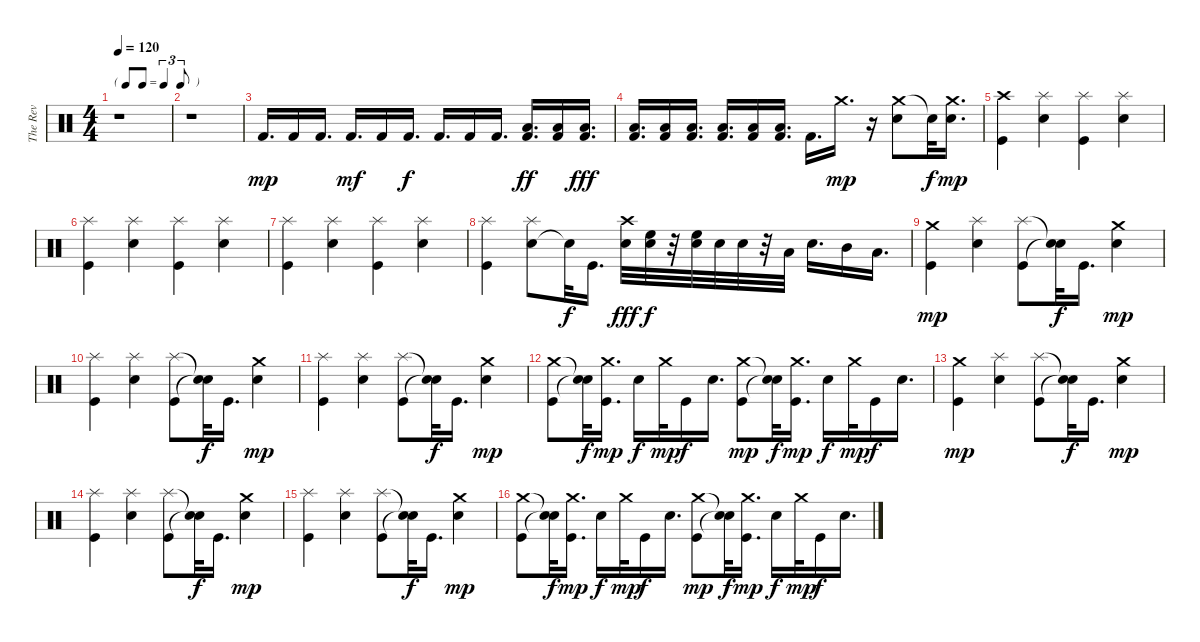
\track ("The Rev" "The Rev") {instrument percussion}
\staff {score}
\articulation defaults
\ts (4 4)
\tf triplet8th
\tempo 120
\clef neutral
\ks c
r.1{dy mp} |
r.1 |
"Kick (hit) 2".16{d} "Kick (hit) 2".16 "Kick (hit) 2".16{d} "Kick (hit) 2".16{d dy mf} "Kick (hit) 2".16 "Kick (hit) 2".16{d dy f} "Kick (hit) 2".16{d} "Kick (hit) 2".16 "Kick (hit) 2".16{d} ("Low Floor Tom (hit)" "Kick (hit) 2").16{d dy ff} ("Low Floor Tom (hit)" "Kick (hit) 2").16 ("Low Floor Tom (hit)" "Kick (hit) 2").16{d dy fff} |
("Low Floor Tom (hit)" "Kick (hit) 2").16{d} ("Low Floor Tom (hit)" "Kick (hit) 2").16 ("Low Floor Tom (hit)" "Kick (hit) 2").16{d} ("Low Floor Tom (hit)" "Kick (hit) 2").16{d} ("Low Floor Tom (hit)" "Kick (hit) 2").16 ("Low Floor Tom (hit)" "Kick (hit) 2").16{d} "Kick (hit) 2".16{d} "Crash medium (hit)".16{d dy mp} r.16 ("Crash medium (hit)" "Snare (hit) 2").8 "Snare (hit)"{t}.32{dy f} ("Snare (hit) 2" "Crash medium (hit)").16{d dy mp} |
("Kick (hit)" "Crash high (hit)").4 ("Splash (hit)" "Electric Snare (hit)").4 ("Kick (hit)" "Splash (hit)").4 ("Electric Snare (hit)" "Splash (hit)").4 |
("Kick (hit)" "Splash (hit)").4 ("Electric Snare (hit)" "Splash (hit)").4 ("Kick (hit)" "Splash (hit)").4 ("Electric Snare (hit)" "Splash (hit)").4 |
("Splash (hit)" "Kick (hit)").4 ("Splash (hit)" "Electric Snare (hit)").4 ("Splash (hit)" "Kick (hit)").4 ("Splash (hit)" "Electric Snare (hit)").4 |
("Kick (hit)" "Splash (hit)").4 ("Electric Snare (hit)" "Splash (hit)").8 "Snare (hit)"{t}.32{dy f} "Kick (hit)".16{d} ("Electric Snare (hit)" "Crash high (hit)").32{dy fff} ("Electric Snare (hit)" "High Floor Tom (hit)").32{dy f} r.32 ("Electric Snare (hit)" "High Floor Tom (hit)").32 "Electric Snare (hit)".32 "Electric Snare (hit)".32 r.32 "Low Tom (hit)".32 "Electric Snare (hit)".16{d} "Mid Tom (hit)".16 "Low Tom (hit)".16{d} |
("Kick (hit)" "Crash medium (hit)").4{dy mp} ("Electric Snare (hit)" "Splash (hit)").4 ("Kick (hit)" "Splash (hit)").8 ("Snare (hit)"{t} "Snare (hit)"{t}).32{dy f} "Kick (hit)".16{d} ("Electric Snare (hit)" "Crash medium (hit)").4{dy mp} |
("Kick (hit)" "Splash (hit)").4 ("Electric Snare (hit)" "Splash (hit)").4 ("Kick (hit)" "Splash (hit)").8 ("Snare (hit)"{t} "Snare (hit)"{t}).32{dy f} "Kick (hit)".16{d} ("Electric Snare (hit)" "Crash medium (hit)").4{dy mp} |
("Kick (hit)" "Splash (hit)").4 ("Electric Snare (hit)" "Splash (hit)").4 ("Kick (hit)" "Splash (hit)").8 ("Snare (hit)"{t} "Snare (hit)"{t}).32{dy f} "Kick (hit)".16{d} ("Electric Snare (hit)" "Crash medium (hit)").4{dy mp} |
("Crash medium (hit)" "Kick (hit)").8 ("Snare (hit)"{t} "Snare (hit)"{t}).32{dy f} ("Crash medium (hit)" "Kick (hit)").16{d dy mp} "Electric Snare (hit)".16{dy f} "Crash medium (hit)".32{dy mp} "Kick (hit)".16{dy f} "Electric Snare (hit)".16{d} ("Crash medium (hit)" "Kick (hit)").8{dy mp} ("Snare (hit)"{t} "Snare (hit)"{t}).32{dy f} ("Crash medium (hit)" "Kick (hit)").16{d dy mp} "Electric Snare (hit)".16{dy f} "Crash medium (hit)".32{dy mp} "Kick (hit)".16{dy f} "Electric Snare (hit)".16{d} |
("Kick (hit)" "Crash medium (hit)").4{dy mp} ("Electric Snare (hit)" "Splash (hit)").4 ("Kick (hit)" "Splash (hit)").8 ("Snare (hit)"{t} "Snare (hit)"{t}).32{dy f} "Kick (hit)".16{d} ("Electric Snare (hit)" "Crash medium (hit)").4{dy mp} |
("Kick (hit)" "Splash (hit)").4 ("Electric Snare (hit)" "Splash (hit)").4 ("Kick (hit)" "Splash (hit)").8 ("Snare (hit)"{t} "Snare (hit)"{t}).32{dy f} "Kick (hit)".16{d} ("Electric Snare (hit)" "Crash medium (hit)").4{dy mp} |
("Kick (hit)" "Splash (hit)").4 ("Electric Snare (hit)" "Splash (hit)").4 ("Kick (hit)" "Splash (hit)").8 ("Snare (hit)"{t} "Snare (hit)"{t}).32{dy f} "Kick (hit)".16{d} ("Electric Snare (hit)" "Crash medium (hit)").4{dy mp} |
("Crash medium (hit)" "Kick (hit)").8 ("Snare (hit)"{t} "Snare (hit)"{t}).32{dy f} ("Crash medium (hit)" "Kick (hit)").16{d dy mp} "Electric Snare (hit)".16{dy f} "Crash medium (hit)".32{dy mp} "Kick (hit)".16{dy f} "Electric Snare (hit)".16{d} ("Crash medium (hit)" "Kick (hit)").8{dy mp} ("Snare (hit)"{t} "Snare (hit)"{t}).32{dy f} ("Crash medium (hit)" "Kick (hit)").16{d dy mp} "Electric Snare (hit)".16{dy f} "Crash medium (hit)".32{dy mp} "Kick (hit)".16{dy f} "Electric Snare (hit)".16{d}
